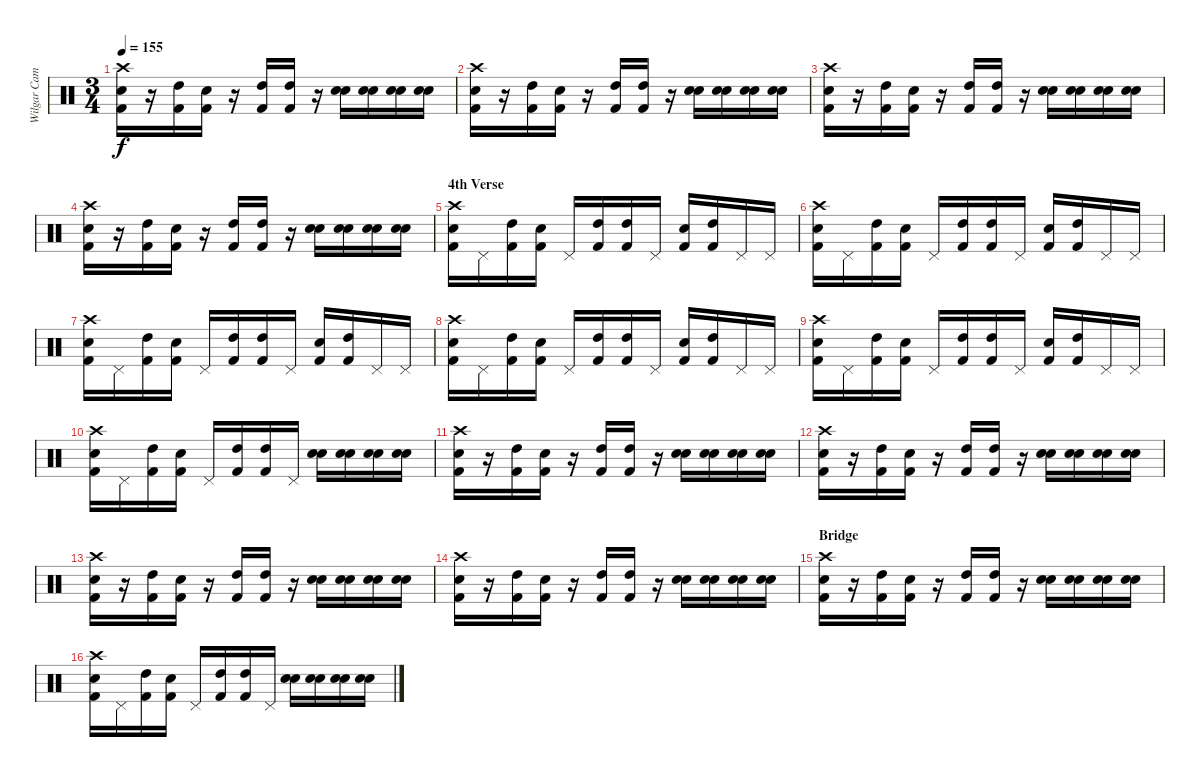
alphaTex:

\track ("Wilgar Campbell" "Wilgar Cam") {instrument percussion}
\staff {score}
\articulation defaults
\ts (3 4)
\tempo 155
\clef neutral
\ks c
("Kick (hit) 2" "Snare (hit) 2" "Crash high (hit)").16{dy f} r.16 ("Kick (hit) 2" "High Tom (hit)").16 ("Kick (hit) 2" "Snare (hit) 2").16 r.16 ("High Tom (hit)" "Kick (hit) 2").16 ("High Tom (hit)" "Kick (hit) 2").16 r.16 ("Electric Snare (hit)" "Electric Snare (hit)").16 ("Electric Snare (hit)" "Electric Snare (hit)").16 ("Electric Snare (hit)" "Electric Snare (hit)").16 ("Electric Snare (hit)" "Electric Snare (hit)").16 |
("Kick (hit) 2" "Snare (hit) 2" "Crash high (hit)").16 r.16 ("Kick (hit) 2" "High Tom (hit)").16 ("Kick (hit) 2" "Snare (hit) 2").16 r.16 ("High Tom (hit)" "Kick (hit) 2").16 ("High Tom (hit)" "Kick (hit) 2").16 r.16 ("Electric Snare (hit)" "Electric Snare (hit)").16 ("Electric Snare (hit)" "Electric Snare (hit)").16 ("Electric Snare (hit)" "Electric Snare (hit)").16 ("Electric Snare (hit)" "Electric Snare (hit)").16 |
("Kick (hit) 2" "Snare (hit) 2" "Crash high (hit)").16 r.16 ("Kick (hit) 2" "High Tom (hit)").16 ("Kick (hit) 2" "Snare (hit) 2").16 r.16 ("High Tom (hit)" "Kick (hit) 2").16 ("High Tom (hit)" "Kick (hit) 2").16 r.16 ("Electric Snare (hit)" "Electric Snare (hit)").16 ("Electric Snare (hit)" "Electric Snare (hit)").16 ("Electric Snare (hit)" "Electric Snare (hit)").16 ("Electric Snare (hit)" "Electric Snare (hit)").16 |
("Kick (hit) 2" "Snare (hit) 2" "Crash high (hit)").16 r.16 ("Kick (hit) 2" "High Tom (hit)").16 ("Kick (hit) 2" "Snare (hit) 2").16 r.16 ("High Tom (hit)" "Kick (hit) 2").16 ("High Tom (hit)" "Kick (hit) 2").16 r.16 ("Electric Snare (hit)" "Electric Snare (hit)").16 ("Electric Snare (hit)" "Electric Snare (hit)").16 ("Electric Snare (hit)" "Electric Snare (hit)").16 ("Electric Snare (hit)" "Electric Snare (hit)").16 |
\section ("" "4th Verse")
("Kick (hit) 2" "Snare (hit) 2" "Crash high (hit)").16 "Pedal Hi-Hat (hit)".16 ("Kick (hit) 2" "High Tom (hit)").16 ("Kick (hit) 2" "Snare (hit) 2").16 "Pedal Hi-Hat (hit)".16 ("High Tom (hit)" "Kick (hit) 2").16 ("High Tom (hit)" "Kick (hit) 2").16 "Pedal Hi-Hat (hit)".16 ("Electric Snare (hit)" "Kick (hit) 2").16 ("High Tom (hit)" "Kick (hit) 2").16 "Pedal Hi-Hat (hit)".16 "Pedal Hi-Hat (hit)".16 |
("Kick (hit) 2" "Snare (hit) 2" "Crash high (hit)").16 "Pedal Hi-Hat (hit)".16 ("Kick (hit) 2" "High Tom (hit)").16 ("Kick (hit) 2" "Snare (hit) 2").16 "Pedal Hi-Hat (hit)".16 ("High Tom (hit)" "Kick (hit) 2").16 ("High Tom (hit)" "Kick (hit) 2").16 "Pedal Hi-Hat (hit)".16 ("Electric Snare (hit)" "Kick (hit) 2").16 ("High Tom (hit)" "Kick (hit) 2").16 "Pedal Hi-Hat (hit)".16 "Pedal Hi-Hat (hit)".16 |
("Kick (hit) 2" "Snare (hit) 2" "Crash high (hit)").16 "Pedal Hi-Hat (hit)".16 ("Kick (hit) 2" "High Tom (hit)").16 ("Kick (hit) 2" "Snare (hit) 2").16 "Pedal Hi-Hat (hit)".16 ("High Tom (hit)" "Kick (hit) 2").16 ("High Tom (hit)" "Kick (hit) 2").16 "Pedal Hi-Hat (hit)".16 ("Electric Snare (hit)" "Kick (hit) 2").16 ("High Tom (hit)" "Kick (hit) 2").16 "Pedal Hi-Hat (hit)".16 "Pedal Hi-Hat (hit)".16 |
("Kick (hit) 2" "Snare (hit) 2" "Crash high (hit)").16 "Pedal Hi-Hat (hit)".16 ("Kick (hit) 2" "High Tom (hit)").16 ("Kick (hit) 2" "Snare (hit) 2").16 "Pedal Hi-Hat (hit)".16 ("High Tom (hit)" "Kick (hit) 2").16 ("High Tom (hit)" "Kick (hit) 2").16 "Pedal Hi-Hat (hit)".16 ("Electric Snare (hit)" "Kick (hit) 2").16 ("High Tom (hit)" "Kick (hit) 2").16 "Pedal Hi-Hat (hit)".16 "Pedal Hi-Hat (hit)".16 |
("Kick (hit) 2" "Snare (hit) 2" "Crash high (hit)").16 "Pedal Hi-Hat (hit)".16 ("Kick (hit) 2" "High Tom (hit)").16 ("Kick (hit) 2" "Snare (hit) 2").16 "Pedal Hi-Hat (hit)".16 ("High Tom (hit)" "Kick (hit) 2").16 ("High Tom (hit)" "Kick (hit) 2").16 "Pedal Hi-Hat (hit)".16 ("Electric Snare (hit)" "Kick (hit) 2").16 ("High Tom (hit)" "Kick (hit) 2").16 "Pedal Hi-Hat (hit)".16 "Pedal Hi-Hat (hit)".16 |
("Kick (hit) 2" "Snare (hit) 2" "Crash high (hit)").16 "Pedal Hi-Hat (hit)".16 ("Kick (hit) 2" "High Tom (hit)").16 ("Kick (hit) 2" "Snare (hit) 2").16 "Pedal Hi-Hat (hit)".16 ("High Tom (hit)" "Kick (hit) 2").16 ("High Tom (hit)" "Kick (hit) 2").16 "Pedal Hi-Hat (hit)".16 ("Electric Snare (hit)" "Electric Snare (hit)").16 ("Electric Snare (hit)" "Electric Snare (hit)").16 ("Electric Snare (hit)" "Electric Snare (hit)").16 ("Electric Snare (hit)" "Electric Snare (hit)").16 |
("Kick (hit) 2" "Snare (hit) 2" "Crash high (hit)").16 r.16 ("Kick (hit) 2" "High Tom (hit)").16 ("Kick (hit) 2" "Snare (hit) 2").16 r.16 ("High Tom (hit)" "Kick (hit) 2").16 ("High Tom (hit)" "Kick (hit) 2").16 r.16 ("Electric Snare (hit)" "Electric Snare (hit)").16 ("Electric Snare (hit)" "Electric Snare (hit)").16 ("Electric Snare (hit)" "Electric Snare (hit)").16 ("Electric Snare (hit)" "Electric Snare (hit)").16 |
("Kick (hit) 2" "Snare (hit) 2" "Crash high (hit)").16 r.16 ("Kick (hit) 2" "High Tom (hit)").16 ("Kick (hit) 2" "Snare (hit) 2").16 r.16 ("High Tom (hit)" "Kick (hit) 2").16 ("High Tom (hit)" "Kick (hit) 2").16 r.16 ("Electric Snare (hit)" "Electric Snare (hit)").16 ("Electric Snare (hit)" "Electric Snare (hit)").16 ("Electric Snare (hit)" "Electric Snare (hit)").16 ("Electric Snare (hit)" "Electric Snare (hit)").16 |
("Kick (hit) 2" "Snare (hit) 2" "Crash high (hit)").16 r.16 ("Kick (hit) 2" "High Tom (hit)").16 ("Kick (hit) 2" "Snare (hit) 2").16 r.16 ("High Tom (hit)" "Kick (hit) 2").16 ("High Tom (hit)" "Kick (hit) 2").16 r.16 ("Electric Snare (hit)" "Electric Snare (hit)").16 ("Electric Snare (hit)" "Electric Snare (hit)").16 ("Electric Snare (hit)" "Electric Snare (hit)").16 ("Electric Snare (hit)" "Electric Snare (hit)").16 |
("Kick (hit) 2" "Snare (hit) 2" "Crash high (hit)").16 r.16 ("Kick (hit) 2" "High Tom (hit)").16 ("Kick (hit) 2" "Snare (hit) 2").16 r.16 ("High Tom (hit)" "Kick (hit) 2").16 ("High Tom (hit)" "Kick (hit) 2").16 r.16 ("Electric Snare (hit)" "Electric Snare (hit)").16 ("Electric Snare (hit)" "Electric Snare (hit)").16 ("Electric Snare (hit)" "Electric Snare (hit)").16 ("Electric Snare (hit)" "Electric Snare (hit)").16 |
\section ("" "Bridge")
("Kick (hit) 2" "Snare (hit) 2" "Crash high (hit)").16 r.16 ("Kick (hit) 2" "High Tom (hit)").16 ("Kick (hit) 2" "Snare (hit) 2").16 r.16 ("High Tom (hit)" "Kick (hit) 2").16 ("High Tom (hit)" "Kick (hit) 2").16 r.16 ("Electric Snare (hit)" "Electric Snare (hit)").16 ("Electric Snare (hit)" "Electric Snare (hit)").16 ("Electric Snare (hit)" "Electric Snare (hit)").16 ("Electric Snare (hit)" "Electric Snare (hit)").16 |
("Kick (hit) 2" "Snare (hit) 2" "Crash high (hit)").16 "Pedal Hi-Hat (hit)".16 ("Kick (hit) 2" "High Tom (hit)").16 ("Kick (hit) 2" "Snare (hit) 2").16 "Pedal Hi-Hat (hit)".16 ("High Tom (hit)" "Kick (hit) 2").16 ("High Tom (hit)" "Kick (hit) 2").16 "Pedal Hi-Hat (hit)".16 ("Electric Snare (hit)" "Electric Snare (hit)").16 ("Electric Snare (hit)" "Electric Snare (hit)").16 ("Electric Snare (hit)" "Electric Snare (hit)").16 ("Electric Snare (hit)" "Electric Snare (hit)").16
